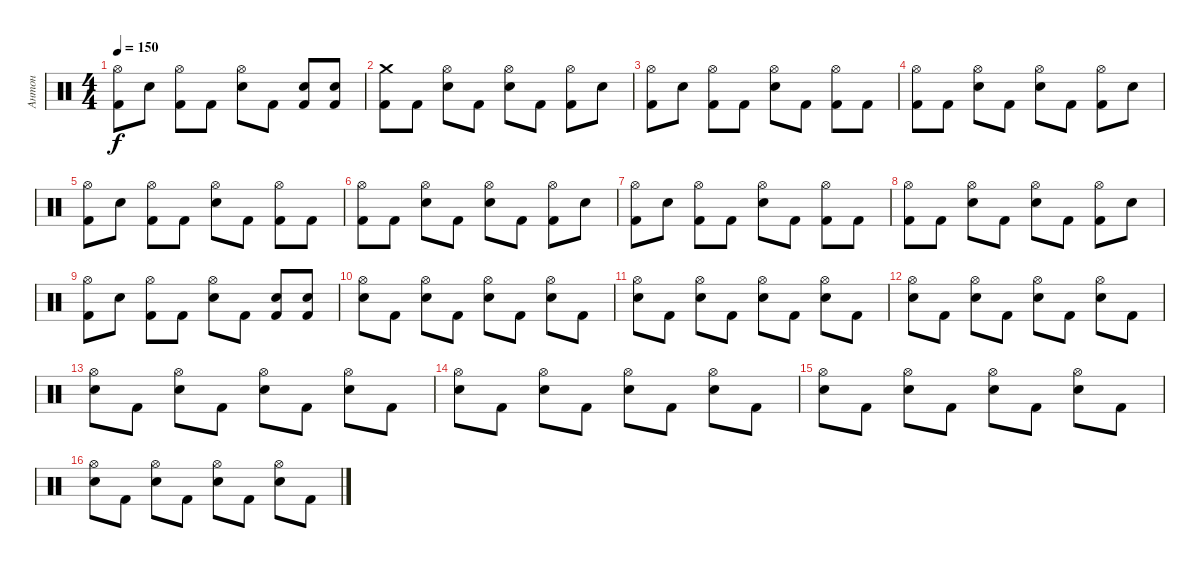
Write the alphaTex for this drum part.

\track ("Антон" "Антон") {instrument percussion}
\staff {score}
\articulation defaults
\ts (4 4)
\tempo 150
\clef neutral
\ks c
("Hi-Hat (open)" "Kick (hit) 2").8{dy f} "Electric Snare (hit)".8 ("Hi-Hat (open)" "Kick (hit) 2").8 "Kick (hit) 2".8 ("Hi-Hat (open)" "Electric Snare (hit)").8 "Kick (hit) 2".8 ("Electric Snare (hit)" "Kick (hit) 2").8 ("Electric Snare (hit)" "Kick (hit) 2").8 |
("Crash medium (hit)" "Kick (hit) 2").8 "Kick (hit) 2".8 ("Hi-Hat (open)" "Electric Snare (hit)").8 "Kick (hit) 2".8 ("Hi-Hat (open)" "Electric Snare (hit)").8 "Kick (hit) 2".8 ("Hi-Hat (open)" "Kick (hit) 2").8 "Electric Snare (hit)".8 |
("Hi-Hat (open)" "Kick (hit) 2").8 "Electric Snare (hit)".8 ("Hi-Hat (open)" "Kick (hit) 2").8 "Kick (hit) 2".8 ("Hi-Hat (open)" "Electric Snare (hit)").8 "Kick (hit) 2".8 ("Hi-Hat (open)" "Kick (hit) 2").8 "Kick (hit) 2".8 |
("Hi-Hat (open)" "Kick (hit) 2").8 "Kick (hit) 2".8 ("Hi-Hat (open)" "Electric Snare (hit)").8 "Kick (hit) 2".8 ("Hi-Hat (open)" "Electric Snare (hit)").8 "Kick (hit) 2".8 ("Hi-Hat (open)" "Kick (hit) 2").8 "Electric Snare (hit)".8 |
("Hi-Hat (open)" "Kick (hit) 2").8 "Electric Snare (hit)".8 ("Hi-Hat (open)" "Kick (hit) 2").8 "Kick (hit) 2".8 ("Hi-Hat (open)" "Electric Snare (hit)").8 "Kick (hit) 2".8 ("Hi-Hat (open)" "Kick (hit) 2").8 "Kick (hit) 2".8 |
("Hi-Hat (open)" "Kick (hit) 2").8 "Kick (hit) 2".8 ("Hi-Hat (open)" "Electric Snare (hit)").8 "Kick (hit) 2".8 ("Hi-Hat (open)" "Electric Snare (hit)").8 "Kick (hit) 2".8 ("Hi-Hat (open)" "Kick (hit) 2").8 "Electric Snare (hit)".8 |
("Hi-Hat (open)" "Kick (hit) 2").8 "Electric Snare (hit)".8 ("Hi-Hat (open)" "Kick (hit) 2").8 "Kick (hit) 2".8 ("Hi-Hat (open)" "Electric Snare (hit)").8 "Kick (hit) 2".8 ("Hi-Hat (open)" "Kick (hit) 2").8 "Kick (hit) 2".8 |
("Hi-Hat (open)" "Kick (hit) 2").8 "Kick (hit) 2".8 ("Hi-Hat (open)" "Electric Snare (hit)").8 "Kick (hit) 2".8 ("Hi-Hat (open)" "Electric Snare (hit)").8 "Kick (hit) 2".8 ("Hi-Hat (open)" "Kick (hit) 2").8 "Electric Snare (hit)".8 |
("Hi-Hat (open)" "Kick (hit) 2").8 "Electric Snare (hit)".8 ("Hi-Hat (open)" "Kick (hit) 2").8 "Kick (hit) 2".8 ("Hi-Hat (open)" "Electric Snare (hit)").8 "Kick (hit) 2".8 ("Electric Snare (hit)" "Kick (hit) 2").8 ("Electric Snare (hit)" "Kick (hit) 2").8 |
("Hi-Hat (open)" "Electric Snare (hit)").8 "Kick (hit) 2".8 ("Hi-Hat (open)" "Electric Snare (hit)").8 "Kick (hit) 2".8 ("Hi-Hat (open)" "Electric Snare (hit)").8 "Kick (hit) 2".8 ("Hi-Hat (open)" "Electric Snare (hit)").8 "Kick (hit) 2".8 |
("Hi-Hat (open)" "Electric Snare (hit)").8 "Kick (hit) 2".8 ("Hi-Hat (open)" "Electric Snare (hit)").8 "Kick (hit) 2".8 ("Hi-Hat (open)" "Electric Snare (hit)").8 "Kick (hit) 2".8 ("Hi-Hat (open)" "Electric Snare (hit)").8 "Kick (hit) 2".8 |
("Hi-Hat (open)" "Electric Snare (hit)").8 "Kick (hit) 2".8 ("Hi-Hat (open)" "Electric Snare (hit)").8 "Kick (hit) 2".8 ("Hi-Hat (open)" "Electric Snare (hit)").8 "Kick (hit) 2".8 ("Hi-Hat (open)" "Electric Snare (hit)").8 "Kick (hit) 2".8 |
("Hi-Hat (open)" "Electric Snare (hit)").8 "Kick (hit) 2".8 ("Hi-Hat (open)" "Electric Snare (hit)").8 "Kick (hit) 2".8 ("Hi-Hat (open)" "Electric Snare (hit)").8 "Kick (hit) 2".8 ("Hi-Hat (open)" "Electric Snare (hit)").8 "Kick (hit) 2".8 |
("Hi-Hat (open)" "Electric Snare (hit)").8 "Kick (hit) 2".8 ("Hi-Hat (open)" "Electric Snare (hit)").8 "Kick (hit) 2".8 ("Hi-Hat (open)" "Electric Snare (hit)").8 "Kick (hit) 2".8 ("Hi-Hat (open)" "Electric Snare (hit)").8 "Kick (hit) 2".8 |
("Hi-Hat (open)" "Electric Snare (hit)").8 "Kick (hit) 2".8 ("Hi-Hat (open)" "Electric Snare (hit)").8 "Kick (hit) 2".8 ("Hi-Hat (open)" "Electric Snare (hit)").8 "Kick (hit) 2".8 ("Hi-Hat (open)" "Electric Snare (hit)").8 "Kick (hit) 2".8 |
("Hi-Hat (open)" "Electric Snare (hit)").8 "Kick (hit) 2".8 ("Hi-Hat (open)" "Electric Snare (hit)").8 "Kick (hit) 2".8 ("Hi-Hat (open)" "Electric Snare (hit)").8 "Kick (hit) 2".8 ("Hi-Hat (open)" "Electric Snare (hit)").8 "Kick (hit) 2".8
